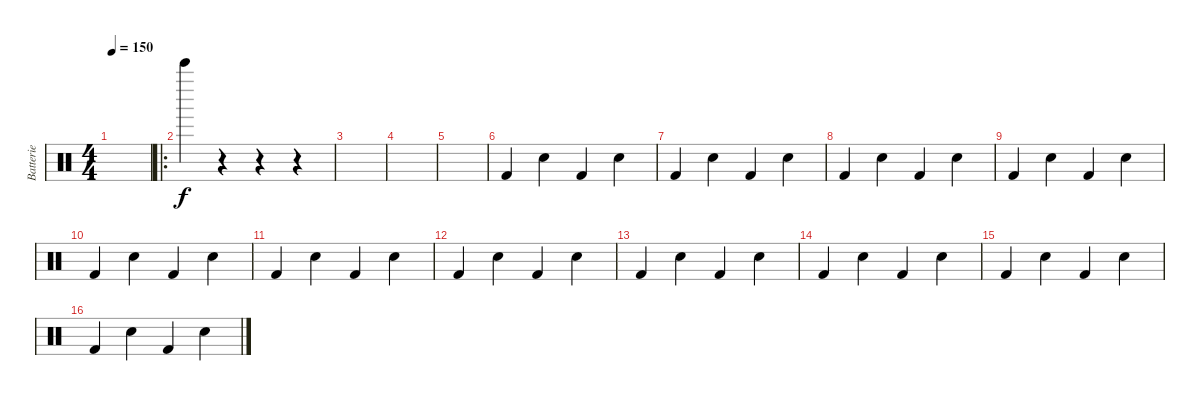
\track ("Batterie" "Batterie") {instrument percussion}
\staff {score}
\articulation defaults
\ts (4 4)
\tempo 150
\clef neutral
\ks c
|
\ro "Bell Tree (hit)".4
r.4 r.4 r.4 |
|
|
|
"Kick (hit) 2".4 "Snare (hit) 2".4 "Kick (hit) 2".4 "Snare (hit) 2".4 |
"Kick (hit) 2".4 "Snare (hit) 2".4 "Kick (hit) 2".4 "Snare (hit) 2".4 |
"Kick (hit) 2".4 "Snare (hit) 2".4 "Kick (hit) 2".4 "Snare (hit) 2".4 |
"Kick (hit) 2".4 "Snare (hit) 2".4 "Kick (hit) 2".4 "Snare (hit) 2".4 |
"Kick (hit) 2".4 "Snare (hit) 2".4 "Kick (hit) 2".4 "Snare (hit) 2".4 |
"Kick (hit) 2".4 "Snare (hit) 2".4 "Kick (hit) 2".4 "Snare (hit) 2".4 |
"Kick (hit) 2".4 "Snare (hit) 2".4 "Kick (hit) 2".4 "Snare (hit) 2".4 |
"Kick (hit) 2".4 "Snare (hit) 2".4 "Kick (hit) 2".4 "Snare (hit) 2".4 |
"Kick (hit) 2".4 "Snare (hit) 2".4 "Kick (hit) 2".4 "Snare (hit) 2".4 |
"Kick (hit) 2".4 "Snare (hit) 2".4 "Kick (hit) 2".4 "Snare (hit) 2".4 |
"Kick (hit) 2".4 "Snare (hit) 2".4 "Kick (hit) 2".4 "Snare (hit) 2".4
